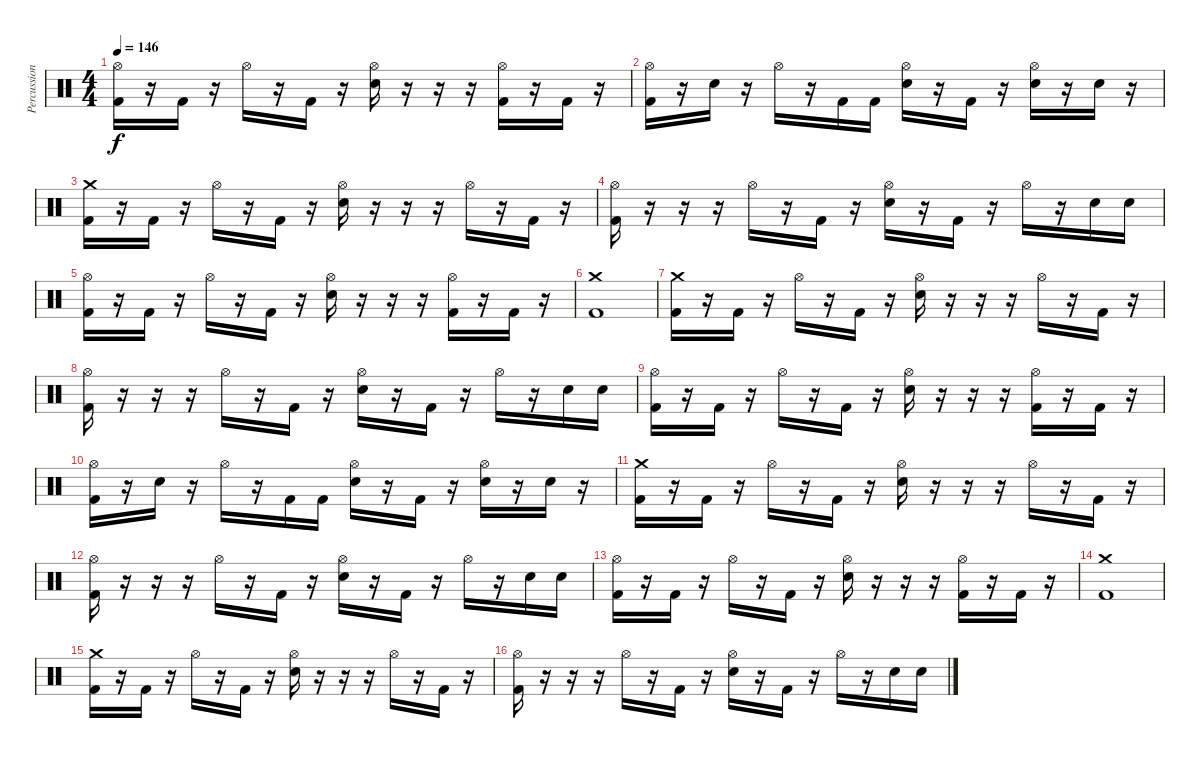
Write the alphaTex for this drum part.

\track ("Percussion" "Percussion") {instrument percussion}
\staff {score}
\articulation defaults
\ts (4 4)
\tempo 146
\clef neutral
\ks c
("Hi-Hat (open)" "Kick (hit) 2").16{dy f} r.16 "Kick (hit) 2".16 r.16 "Hi-Hat (open)".16 r.16 "Kick (hit) 2".16 r.16 ("Hi-Hat (open)" "Snare (hit) 2").16 r.16 r.16 r.16 ("Hi-Hat (open)" "Kick (hit) 2").16 r.16 "Kick (hit) 2".16 r.16 |
("Hi-Hat (open)" "Kick (hit) 2").16 r.16 "Snare (hit) 2".16 r.16 "Hi-Hat (open)".16 r.16 "Kick (hit) 2".16 "Kick (hit) 2".16 ("Hi-Hat (open)" "Snare (hit) 2").16 r.16 "Kick (hit) 2".16 r.16 ("Hi-Hat (open)" "Snare (hit) 2").16 r.16 "Snare (hit) 2".16 r.16 |
("Crash medium (hit)" "Kick (hit) 2").16 r.16 "Kick (hit) 2".16 r.16 "Hi-Hat (open)".16 r.16 "Kick (hit) 2".16 r.16 ("Hi-Hat (open)" "Snare (hit) 2").16 r.16 r.16 r.16 "Hi-Hat (open)".16 r.16 "Kick (hit) 2".16 r.16 |
("Hi-Hat (open)" "Kick (hit) 2").16 r.16 r.16 r.16 "Hi-Hat (open)".16 r.16 "Kick (hit) 2".16 r.16 ("Hi-Hat (open)" "Snare (hit) 2").16 r.16 "Kick (hit) 2".16 r.16 "Hi-Hat (open)".16 r.16 "Snare (hit) 2".16 "Snare (hit) 2".16 |
("Hi-Hat (open)" "Kick (hit) 2").16 r.16 "Kick (hit) 2".16 r.16 "Hi-Hat (open)".16 r.16 "Kick (hit) 2".16 r.16 ("Hi-Hat (open)" "Snare (hit) 2").16 r.16 r.16 r.16 ("Hi-Hat (open)" "Kick (hit) 2").16 r.16 "Kick (hit) 2".16 r.16 |
("Crash medium (hit)" "Kick (hit) 2").1 |
("Crash medium (hit)" "Kick (hit) 2").16 r.16 "Kick (hit) 2".16 r.16 "Hi-Hat (open)".16 r.16 "Kick (hit) 2".16 r.16 ("Hi-Hat (open)" "Snare (hit) 2").16 r.16 r.16 r.16 "Hi-Hat (open)".16 r.16 "Kick (hit) 2".16 r.16 |
("Hi-Hat (open)" "Kick (hit) 2").16 r.16 r.16 r.16 "Hi-Hat (open)".16 r.16 "Kick (hit) 2".16 r.16 ("Hi-Hat (open)" "Snare (hit) 2").16 r.16 "Kick (hit) 2".16 r.16 "Hi-Hat (open)".16 r.16 "Snare (hit) 2".16 "Snare (hit) 2".16 |
("Hi-Hat (open)" "Kick (hit) 2").16 r.16 "Kick (hit) 2".16 r.16 "Hi-Hat (open)".16 r.16 "Kick (hit) 2".16 r.16 ("Hi-Hat (open)" "Snare (hit) 2").16 r.16 r.16 r.16 ("Hi-Hat (open)" "Kick (hit) 2").16 r.16 "Kick (hit) 2".16 r.16 |
("Hi-Hat (open)" "Kick (hit) 2").16 r.16 "Snare (hit) 2".16 r.16 "Hi-Hat (open)".16 r.16 "Kick (hit) 2".16 "Kick (hit) 2".16 ("Hi-Hat (open)" "Snare (hit) 2").16 r.16 "Kick (hit) 2".16 r.16 ("Hi-Hat (open)" "Snare (hit) 2").16 r.16 "Snare (hit) 2".16 r.16 |
("Crash medium (hit)" "Kick (hit) 2").16 r.16 "Kick (hit) 2".16 r.16 "Hi-Hat (open)".16 r.16 "Kick (hit) 2".16 r.16 ("Hi-Hat (open)" "Snare (hit) 2").16 r.16 r.16 r.16 "Hi-Hat (open)".16 r.16 "Kick (hit) 2".16 r.16 |
("Hi-Hat (open)" "Kick (hit) 2").16 r.16 r.16 r.16 "Hi-Hat (open)".16 r.16 "Kick (hit) 2".16 r.16 ("Hi-Hat (open)" "Snare (hit) 2").16 r.16 "Kick (hit) 2".16 r.16 "Hi-Hat (open)".16 r.16 "Snare (hit) 2".16 "Snare (hit) 2".16 |
("Hi-Hat (open)" "Kick (hit) 2").16 r.16 "Kick (hit) 2".16 r.16 "Hi-Hat (open)".16 r.16 "Kick (hit) 2".16 r.16 ("Hi-Hat (open)" "Snare (hit) 2").16 r.16 r.16 r.16 ("Hi-Hat (open)" "Kick (hit) 2").16 r.16 "Kick (hit) 2".16 r.16 |
("Crash medium (hit)" "Kick (hit) 2").1 |
("Crash medium (hit)" "Kick (hit) 2").16 r.16 "Kick (hit) 2".16 r.16 "Hi-Hat (open)".16 r.16 "Kick (hit) 2".16 r.16 ("Hi-Hat (open)" "Snare (hit) 2").16 r.16 r.16 r.16 "Hi-Hat (open)".16 r.16 "Kick (hit) 2".16 r.16 |
("Hi-Hat (open)" "Kick (hit) 2").16 r.16 r.16 r.16 "Hi-Hat (open)".16 r.16 "Kick (hit) 2".16 r.16 ("Hi-Hat (open)" "Snare (hit) 2").16 r.16 "Kick (hit) 2".16 r.16 "Hi-Hat (open)".16 r.16 "Snare (hit) 2".16 "Snare (hit) 2".16
